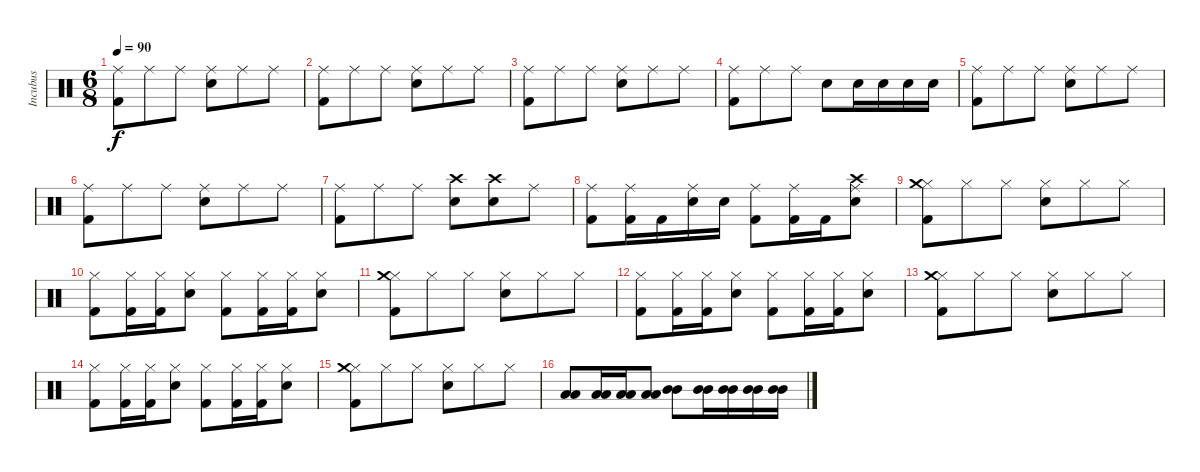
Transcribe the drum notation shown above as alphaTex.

\track ("Incubus" "Incubus") {instrument percussion}
\staff {score}
\articulation defaults
\ts (6 8)
\tempo 90
\clef neutral
\ks c
("Ride (middle)" "Kick (hit) 2").8{dy f} "Ride (middle)".8 "Ride (middle)".8 ("Ride (middle)" "Electric Snare (hit)").8 "Ride (middle)".8 "Ride (middle)".8 |
("Ride (middle)" "Kick (hit) 2").8 "Ride (middle)".8 "Ride (middle)".8 ("Ride (middle)" "Electric Snare (hit)").8 "Ride (middle)".8 "Ride (middle)".8 |
("Ride (middle)" "Kick (hit) 2").8 "Ride (middle)".8 "Ride (middle)".8 ("Ride (middle)" "Electric Snare (hit)").8 "Ride (middle)".8 "Ride (middle)".8 |
("Ride (middle)" "Kick (hit) 2").8 "Ride (middle)".8 "Ride (middle)".8 "Electric Snare (hit)".8 "Electric Snare (hit)".16 "Electric Snare (hit)".16 "Electric Snare (hit)".16 "Electric Snare (hit)".16 |
("Ride (middle)" "Kick (hit) 2").8 "Ride (middle)".8 "Ride (middle)".8 ("Ride (middle)" "Electric Snare (hit)").8 "Ride (middle)".8 "Ride (middle)".8 |
("Ride (middle)" "Kick (hit) 2").8 "Ride (middle)".8 "Ride (middle)".8 ("Ride (middle)" "Electric Snare (hit)").8 "Ride (middle)".8 "Ride (middle)".8 |
("Ride (middle)" "Kick (hit) 2").8 "Ride (middle)".8 "Ride (middle)".8 ("Crash high (hit)" "Electric Snare (hit)").8 ("Crash high (hit)" "Electric Snare (hit)").8 "Ride (middle)".8 |
("Ride (middle)" "Kick (hit) 2").8 ("Ride (middle)" "Kick (hit) 2").16 "Kick (hit) 2".16 ("Ride (middle)" "Electric Snare (hit)").16 "Electric Snare (hit)".16 ("Ride (middle)" "Kick (hit) 2").8 ("Ride (middle)" "Kick (hit) 2").16 "Kick (hit) 2".16 ("Ride (middle)" "Crash high (hit)" "Electric Snare (hit)").8 |
("Hi-Hat (closed)" "Crash medium (hit)" "Kick (hit) 2").8 "Hi-Hat (closed)".8 "Hi-Hat (closed)".8 ("Hi-Hat (closed)" "Electric Snare (hit)").8 "Hi-Hat (closed)".8 "Hi-Hat (closed)".8 |
("Hi-Hat (closed)" "Kick (hit) 2").8 ("Hi-Hat (closed)" "Kick (hit) 2").16 ("Hi-Hat (closed)" "Kick (hit) 2").16 ("Hi-Hat (closed)" "Electric Snare (hit)").8 ("Hi-Hat (closed)" "Kick (hit) 2").8 ("Hi-Hat (closed)" "Kick (hit) 2").16 ("Hi-Hat (closed)" "Kick (hit) 2").16 ("Hi-Hat (closed)" "Electric Snare (hit)").8 |
("Hi-Hat (closed)" "Crash medium (hit)" "Kick (hit) 2").8 "Hi-Hat (closed)".8 "Hi-Hat (closed)".8 ("Hi-Hat (closed)" "Electric Snare (hit)").8 "Hi-Hat (closed)".8 "Hi-Hat (closed)".8 |
("Hi-Hat (closed)" "Kick (hit) 2").8 ("Hi-Hat (closed)" "Kick (hit) 2").16 ("Hi-Hat (closed)" "Kick (hit) 2").16 ("Hi-Hat (closed)" "Electric Snare (hit)").8 ("Hi-Hat (closed)" "Kick (hit) 2").8 ("Hi-Hat (closed)" "Kick (hit) 2").16 ("Hi-Hat (closed)" "Kick (hit) 2").16 ("Hi-Hat (closed)" "Electric Snare (hit)").8 |
("Hi-Hat (closed)" "Crash medium (hit)" "Kick (hit) 2").8 "Hi-Hat (closed)".8 "Hi-Hat (closed)".8 ("Hi-Hat (closed)" "Electric Snare (hit)").8 "Hi-Hat (closed)".8 "Hi-Hat (closed)".8 |
("Hi-Hat (closed)" "Kick (hit) 2").8 ("Hi-Hat (closed)" "Kick (hit) 2").16 ("Hi-Hat (closed)" "Kick (hit) 2").16 ("Hi-Hat (closed)" "Electric Snare (hit)").8 ("Hi-Hat (closed)" "Kick (hit) 2").8 ("Hi-Hat (closed)" "Kick (hit) 2").16 ("Hi-Hat (closed)" "Kick (hit) 2").16 ("Hi-Hat (closed)" "Electric Snare (hit)").8 |
("Hi-Hat (closed)" "Crash medium (hit)" "Kick (hit) 2").8 "Hi-Hat (closed)".8 "Hi-Hat (closed)".8 ("Hi-Hat (closed)" "Electric Snare (hit)").8 "Hi-Hat (closed)".8 "Hi-Hat (closed)".8 |
("Low Tom (hit)" "Low Tom (hit)").8 ("Low Tom (hit)" "Low Tom (hit)").16 ("Low Tom (hit)" "Low Tom (hit)").16 ("Low Tom (hit)" "Low Tom (hit)").8 ("Mid Tom (hit)" "Mid Tom (hit)").8 ("Mid Tom (hit)" "Mid Tom (hit)").16 ("Mid Tom (hit)" "Mid Tom (hit)").16 ("Mid Tom (hit)" "Mid Tom (hit)").16 ("Mid Tom (hit)" "Mid Tom (hit)").16
